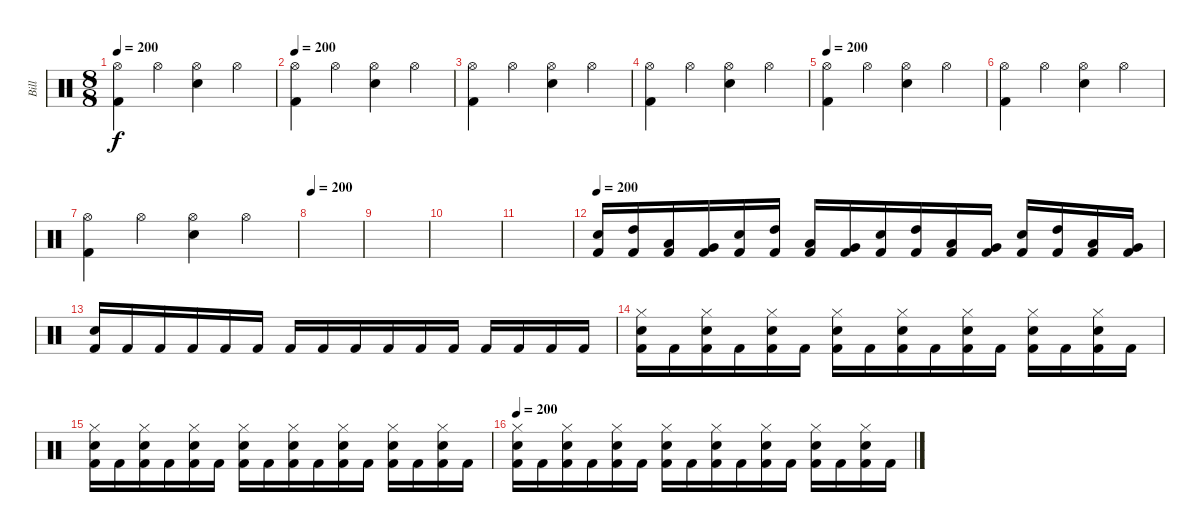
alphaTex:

\track ("Bill" "Bill") {instrument percussion}
\staff {score}
\articulation defaults
\ts (8 8)
\tempo 200
\clef neutral
\ks c
("Hi-Hat (open)" "Kick (hit) 2").4{dy f} "Hi-Hat (open)".4 ("Hi-Hat (open)" "Snare (hit) 2").4 "Hi-Hat (open)".4 |
\tempo 200
("Hi-Hat (open)" "Kick (hit) 2").4 "Hi-Hat (open)".4 ("Hi-Hat (open)" "Snare (hit) 2").4 "Hi-Hat (open)".4 |
("Hi-Hat (open)" "Kick (hit) 2").4 "Hi-Hat (open)".4 ("Hi-Hat (open)" "Snare (hit) 2").4 "Hi-Hat (open)".4 |
("Hi-Hat (open)" "Kick (hit) 2").4 "Hi-Hat (open)".4 ("Hi-Hat (open)" "Snare (hit) 2").4 "Hi-Hat (open)".4 |
\tempo 200
("Hi-Hat (open)" "Kick (hit) 2").4 "Hi-Hat (open)".4 ("Hi-Hat (open)" "Snare (hit) 2").4 "Hi-Hat (open)".4 |
("Hi-Hat (open)" "Kick (hit) 2").4 "Hi-Hat (open)".4 ("Hi-Hat (open)" "Snare (hit) 2").4 "Hi-Hat (open)".4 |
("Hi-Hat (open)" "Kick (hit) 2").4 "Hi-Hat (open)".4 ("Hi-Hat (open)" "Snare (hit) 2").4 "Hi-Hat (open)".4 |
\tempo 200
|
|
|
|
\tempo 200
("Snare (hit) 2" "Kick (hit) 2").16 ("High Tom (hit)" "Kick (hit) 2").16 ("Low Tom (hit)" "Kick (hit) 2").16 ("Very Low Tom (hit)" "Kick (hit) 2").16 ("Snare (hit) 2" "Kick (hit) 2").16 ("High Tom (hit)" "Kick (hit) 2").16 ("Low Tom (hit)" "Kick (hit) 2").16 ("Very Low Tom (hit)" "Kick (hit) 2").16 ("Snare (hit) 2" "Kick (hit) 2").16 ("High Tom (hit)" "Kick (hit) 2").16 ("Low Tom (hit)" "Kick (hit) 2").16 ("Very Low Tom (hit)" "Kick (hit) 2").16 ("Snare (hit) 2" "Kick (hit) 2").16 ("High Tom (hit)" "Kick (hit) 2").16 ("Low Tom (hit)" "Kick (hit) 2").16 ("Very Low Tom (hit)" "Kick (hit) 2").16 |
("Snare (hit) 2" "Kick (hit) 2").16 "Kick (hit) 2".16 "Kick (hit) 2".16 "Kick (hit) 2".16 "Kick (hit) 2".16 "Kick (hit) 2".16 "Kick (hit) 2".16 "Kick (hit) 2".16 "Kick (hit) 2".16 "Kick (hit) 2".16 "Kick (hit) 2".16 "Kick (hit) 2".16 "Kick (hit) 2".16 "Kick (hit) 2".16 "Kick (hit) 2".16 "Kick (hit) 2".16 |
("Hi-Hat (closed)" "Snare (hit) 2" "Kick (hit) 2").16 "Kick (hit) 2".16 ("Hi-Hat (closed)" "Snare (hit) 2" "Kick (hit) 2").16 "Kick (hit) 2".16 ("Hi-Hat (closed)" "Snare (hit) 2" "Kick (hit) 2").16 "Kick (hit) 2".16 ("Hi-Hat (closed)" "Snare (hit) 2" "Kick (hit) 2").16 "Kick (hit) 2".16 ("Hi-Hat (closed)" "Snare (hit) 2" "Kick (hit) 2").16 "Kick (hit) 2".16 ("Hi-Hat (closed)" "Snare (hit) 2" "Kick (hit) 2").16 "Kick (hit) 2".16 ("Hi-Hat (closed)" "Snare (hit) 2" "Kick (hit) 2").16 "Kick (hit) 2".16 ("Hi-Hat (closed)" "Snare (hit) 2" "Kick (hit) 2").16 "Kick (hit) 2".16 |
("Hi-Hat (closed)" "Snare (hit) 2" "Kick (hit) 2").16 "Kick (hit) 2".16 ("Hi-Hat (closed)" "Snare (hit) 2" "Kick (hit) 2").16 "Kick (hit) 2".16 ("Hi-Hat (closed)" "Snare (hit) 2" "Kick (hit) 2").16 "Kick (hit) 2".16 ("Hi-Hat (closed)" "Snare (hit) 2" "Kick (hit) 2").16 "Kick (hit) 2".16 ("Hi-Hat (closed)" "Snare (hit) 2" "Kick (hit) 2").16 "Kick (hit) 2".16 ("Hi-Hat (closed)" "Snare (hit) 2" "Kick (hit) 2").16 "Kick (hit) 2".16 ("Hi-Hat (closed)" "Snare (hit) 2" "Kick (hit) 2").16 "Kick (hit) 2".16 ("Hi-Hat (closed)" "Snare (hit) 2" "Kick (hit) 2").16 "Kick (hit) 2".16 |
\tempo 200
("Hi-Hat (closed)" "Snare (hit) 2" "Kick (hit) 2").16 "Kick (hit) 2".16 ("Hi-Hat (closed)" "Snare (hit) 2" "Kick (hit) 2").16 "Kick (hit) 2".16 ("Hi-Hat (closed)" "Snare (hit) 2" "Kick (hit) 2").16 "Kick (hit) 2".16 ("Hi-Hat (closed)" "Snare (hit) 2" "Kick (hit) 2").16 "Kick (hit) 2".16 ("Hi-Hat (closed)" "Snare (hit) 2" "Kick (hit) 2").16 "Kick (hit) 2".16 ("Hi-Hat (closed)" "Snare (hit) 2" "Kick (hit) 2").16 "Kick (hit) 2".16 ("Hi-Hat (closed)" "Snare (hit) 2" "Kick (hit) 2").16 "Kick (hit) 2".16 ("Hi-Hat (closed)" "Snare (hit) 2" "Kick (hit) 2").16 "Kick (hit) 2".16
